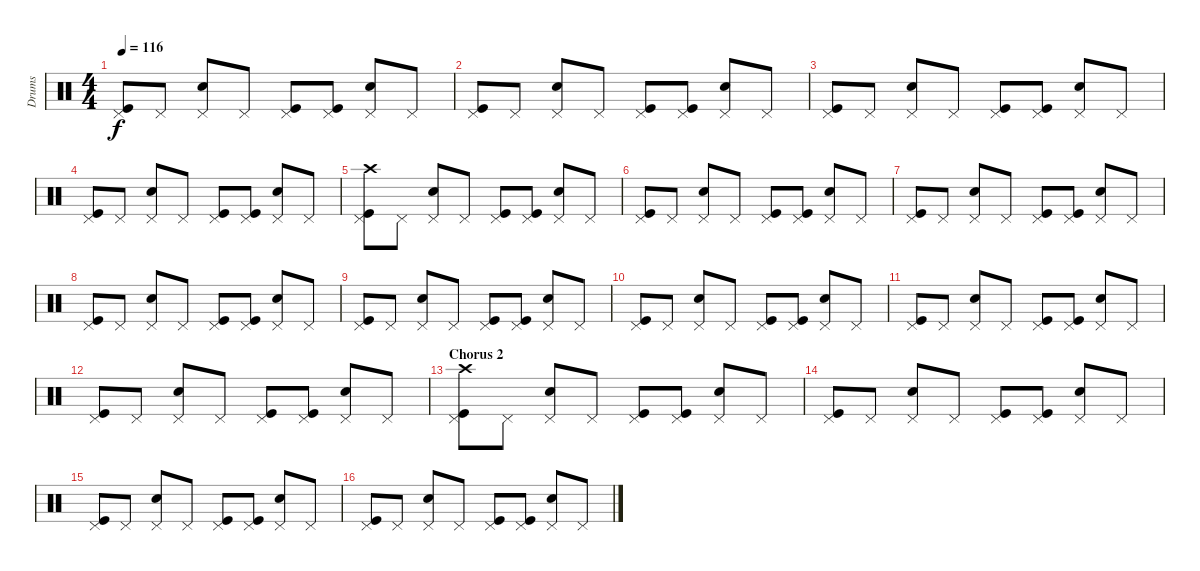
\track ("Drums" "Drums") {instrument percussion}
\staff {score}
\articulation defaults
\ts (4 4)
\tempo 116
\clef neutral
\ks c
("Pedal Hi-Hat (hit)" "Kick (hit)").8{dy f} "Pedal Hi-Hat (hit)".8 ("Pedal Hi-Hat (hit)" "Snare (hit) 2").8 "Pedal Hi-Hat (hit)".8 ("Pedal Hi-Hat (hit)" "Kick (hit)").8 ("Pedal Hi-Hat (hit)" "Kick (hit)").8 ("Pedal Hi-Hat (hit)" "Snare (hit) 2").8 "Pedal Hi-Hat (hit)".8 |
("Pedal Hi-Hat (hit)" "Kick (hit)").8 "Pedal Hi-Hat (hit)".8 ("Pedal Hi-Hat (hit)" "Snare (hit) 2").8 "Pedal Hi-Hat (hit)".8 ("Pedal Hi-Hat (hit)" "Kick (hit)").8 ("Pedal Hi-Hat (hit)" "Kick (hit)").8 ("Pedal Hi-Hat (hit)" "Snare (hit) 2").8 "Pedal Hi-Hat (hit)".8 |
("Pedal Hi-Hat (hit)" "Kick (hit)").8 "Pedal Hi-Hat (hit)".8 ("Pedal Hi-Hat (hit)" "Snare (hit) 2").8 "Pedal Hi-Hat (hit)".8 ("Pedal Hi-Hat (hit)" "Kick (hit)").8 ("Pedal Hi-Hat (hit)" "Kick (hit)").8 ("Pedal Hi-Hat (hit)" "Snare (hit) 2").8 "Pedal Hi-Hat (hit)".8 |
("Pedal Hi-Hat (hit)" "Kick (hit)").8 "Pedal Hi-Hat (hit)".8 ("Pedal Hi-Hat (hit)" "Snare (hit) 2").8 "Pedal Hi-Hat (hit)".8 ("Pedal Hi-Hat (hit)" "Kick (hit)").8 ("Pedal Hi-Hat (hit)" "Kick (hit)").8 ("Pedal Hi-Hat (hit)" "Snare (hit) 2").8 "Pedal Hi-Hat (hit)".8 |
("Pedal Hi-Hat (hit)" "Crash high (hit)" "Kick (hit)").8 "Pedal Hi-Hat (hit)".8 ("Pedal Hi-Hat (hit)" "Snare (hit) 2").8 "Pedal Hi-Hat (hit)".8 ("Pedal Hi-Hat (hit)" "Kick (hit)").8 ("Pedal Hi-Hat (hit)" "Kick (hit)").8 ("Pedal Hi-Hat (hit)" "Snare (hit) 2").8 "Pedal Hi-Hat (hit)".8 |
("Pedal Hi-Hat (hit)" "Kick (hit)").8 "Pedal Hi-Hat (hit)".8 ("Pedal Hi-Hat (hit)" "Snare (hit) 2").8 "Pedal Hi-Hat (hit)".8 ("Pedal Hi-Hat (hit)" "Kick (hit)").8 ("Pedal Hi-Hat (hit)" "Kick (hit)").8 ("Pedal Hi-Hat (hit)" "Snare (hit) 2").8 "Pedal Hi-Hat (hit)".8 |
("Pedal Hi-Hat (hit)" "Kick (hit)").8 "Pedal Hi-Hat (hit)".8 ("Pedal Hi-Hat (hit)" "Snare (hit) 2").8 "Pedal Hi-Hat (hit)".8 ("Pedal Hi-Hat (hit)" "Kick (hit)").8 ("Pedal Hi-Hat (hit)" "Kick (hit)").8 ("Pedal Hi-Hat (hit)" "Snare (hit) 2").8 "Pedal Hi-Hat (hit)".8 |
("Pedal Hi-Hat (hit)" "Kick (hit)").8 "Pedal Hi-Hat (hit)".8 ("Pedal Hi-Hat (hit)" "Snare (hit) 2").8 "Pedal Hi-Hat (hit)".8 ("Pedal Hi-Hat (hit)" "Kick (hit)").8 ("Pedal Hi-Hat (hit)" "Kick (hit)").8 ("Pedal Hi-Hat (hit)" "Snare (hit) 2").8 "Pedal Hi-Hat (hit)".8 |
("Pedal Hi-Hat (hit)" "Kick (hit)").8 "Pedal Hi-Hat (hit)".8 ("Pedal Hi-Hat (hit)" "Snare (hit) 2").8 "Pedal Hi-Hat (hit)".8 ("Pedal Hi-Hat (hit)" "Kick (hit)").8 ("Pedal Hi-Hat (hit)" "Kick (hit)").8 ("Pedal Hi-Hat (hit)" "Snare (hit) 2").8 "Pedal Hi-Hat (hit)".8 |
("Pedal Hi-Hat (hit)" "Kick (hit)").8 "Pedal Hi-Hat (hit)".8 ("Pedal Hi-Hat (hit)" "Snare (hit) 2").8 "Pedal Hi-Hat (hit)".8 ("Pedal Hi-Hat (hit)" "Kick (hit)").8 ("Pedal Hi-Hat (hit)" "Kick (hit)").8 ("Pedal Hi-Hat (hit)" "Snare (hit) 2").8 "Pedal Hi-Hat (hit)".8 |
("Pedal Hi-Hat (hit)" "Kick (hit)").8 "Pedal Hi-Hat (hit)".8 ("Pedal Hi-Hat (hit)" "Snare (hit) 2").8 "Pedal Hi-Hat (hit)".8 ("Pedal Hi-Hat (hit)" "Kick (hit)").8 ("Pedal Hi-Hat (hit)" "Kick (hit)").8 ("Pedal Hi-Hat (hit)" "Snare (hit) 2").8 "Pedal Hi-Hat (hit)".8 |
("Pedal Hi-Hat (hit)" "Kick (hit)").8 "Pedal Hi-Hat (hit)".8 ("Pedal Hi-Hat (hit)" "Snare (hit) 2").8 "Pedal Hi-Hat (hit)".8 ("Pedal Hi-Hat (hit)" "Kick (hit)").8 ("Pedal Hi-Hat (hit)" "Kick (hit)").8 ("Pedal Hi-Hat (hit)" "Snare (hit) 2").8 "Pedal Hi-Hat (hit)".8 |
\section ("" "Chorus 2")
("Pedal Hi-Hat (hit)" "Crash high (hit)" "Kick (hit)").8 "Pedal Hi-Hat (hit)".8 ("Pedal Hi-Hat (hit)" "Snare (hit) 2").8 "Pedal Hi-Hat (hit)".8 ("Pedal Hi-Hat (hit)" "Kick (hit)").8 ("Pedal Hi-Hat (hit)" "Kick (hit)").8 ("Pedal Hi-Hat (hit)" "Snare (hit) 2").8 "Pedal Hi-Hat (hit)".8 |
("Pedal Hi-Hat (hit)" "Kick (hit)").8 "Pedal Hi-Hat (hit)".8 ("Pedal Hi-Hat (hit)" "Snare (hit) 2").8 "Pedal Hi-Hat (hit)".8 ("Pedal Hi-Hat (hit)" "Kick (hit)").8 ("Pedal Hi-Hat (hit)" "Kick (hit)").8 ("Pedal Hi-Hat (hit)" "Snare (hit) 2").8 "Pedal Hi-Hat (hit)".8 |
("Pedal Hi-Hat (hit)" "Kick (hit)").8 "Pedal Hi-Hat (hit)".8 ("Pedal Hi-Hat (hit)" "Snare (hit) 2").8 "Pedal Hi-Hat (hit)".8 ("Pedal Hi-Hat (hit)" "Kick (hit)").8 ("Pedal Hi-Hat (hit)" "Kick (hit)").8 ("Pedal Hi-Hat (hit)" "Snare (hit) 2").8 "Pedal Hi-Hat (hit)".8 |
("Pedal Hi-Hat (hit)" "Kick (hit)").8 "Pedal Hi-Hat (hit)".8 ("Pedal Hi-Hat (hit)" "Snare (hit) 2").8 "Pedal Hi-Hat (hit)".8 ("Pedal Hi-Hat (hit)" "Kick (hit)").8 ("Pedal Hi-Hat (hit)" "Kick (hit)").8 ("Pedal Hi-Hat (hit)" "Snare (hit) 2").8 "Pedal Hi-Hat (hit)".8
